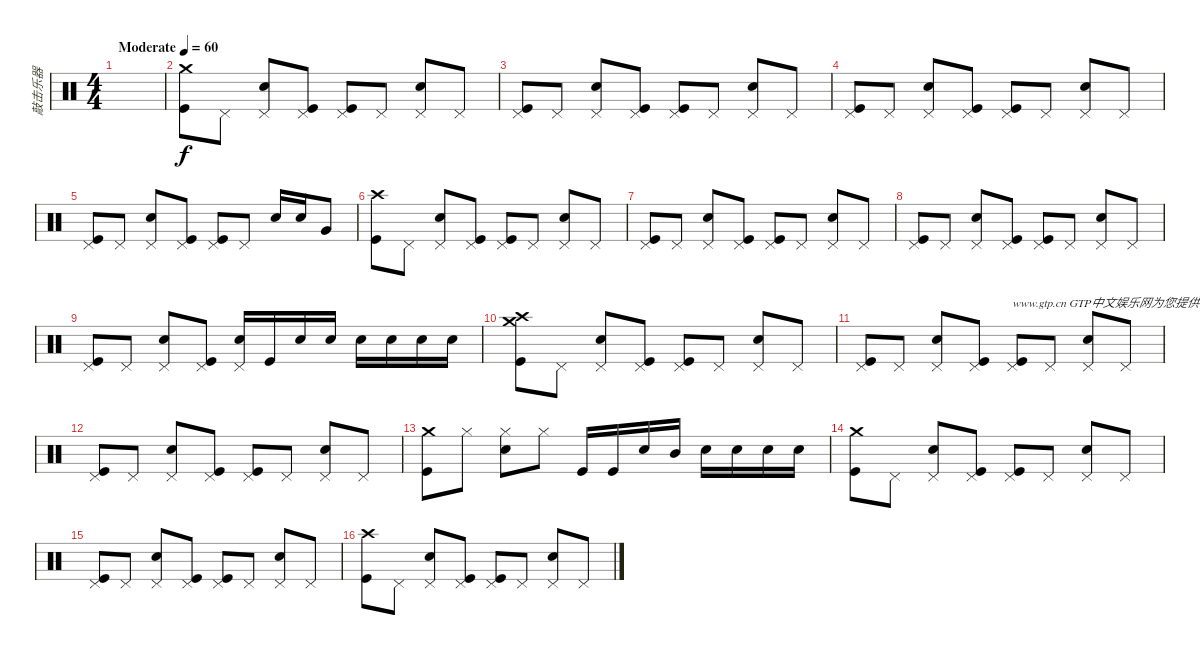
\track ("敲击乐器" "敲击乐器") {instrument percussion}
\staff {score}
\articulation defaults
\ts (4 4)
\tempo (60 "Moderate")
\clef neutral
\ks c
|
("Kick (hit)" "Crash medium (hit)").8 "Pedal Hi-Hat (hit)".8 ("Electric Snare (hit)" "Pedal Hi-Hat (hit)").8 ("Kick (hit)" "Pedal Hi-Hat (hit)").8 ("Kick (hit)" "Pedal Hi-Hat (hit)").8 "Pedal Hi-Hat (hit)".8 ("Electric Snare (hit)" "Pedal Hi-Hat (hit)").8 "Pedal Hi-Hat (hit)".8 |
("Kick (hit)" "Pedal Hi-Hat (hit)").8 "Pedal Hi-Hat (hit)".8 ("Electric Snare (hit)" "Pedal Hi-Hat (hit)").8 ("Kick (hit)" "Pedal Hi-Hat (hit)").8 ("Kick (hit)" "Pedal Hi-Hat (hit)").8 "Pedal Hi-Hat (hit)".8 ("Electric Snare (hit)" "Pedal Hi-Hat (hit)").8 "Pedal Hi-Hat (hit)".8 |
("Kick (hit)" "Pedal Hi-Hat (hit)").8 "Pedal Hi-Hat (hit)".8 ("Electric Snare (hit)" "Pedal Hi-Hat (hit)").8 ("Kick (hit)" "Pedal Hi-Hat (hit)").8 ("Kick (hit)" "Pedal Hi-Hat (hit)").8 "Pedal Hi-Hat (hit)".8 ("Electric Snare (hit)" "Pedal Hi-Hat (hit)").8 "Pedal Hi-Hat (hit)".8 |
("Kick (hit)" "Pedal Hi-Hat (hit)").8 "Pedal Hi-Hat (hit)".8 ("Electric Snare (hit)" "Pedal Hi-Hat (hit)").8 ("Kick (hit)" "Pedal Hi-Hat (hit)").8 ("Kick (hit)" "Pedal Hi-Hat (hit)").8 "Pedal Hi-Hat (hit)".8 "Electric Snare (hit)".16 "Electric Snare (hit)".16 "Very Low Tom (hit)".8 |
("Kick (hit)" "Crash high (hit)").8 "Pedal Hi-Hat (hit)".8 ("Electric Snare (hit)" "Pedal Hi-Hat (hit)").8 ("Kick (hit)" "Pedal Hi-Hat (hit)").8 ("Kick (hit)" "Pedal Hi-Hat (hit)").8 "Pedal Hi-Hat (hit)".8 ("Electric Snare (hit)" "Pedal Hi-Hat (hit)").8 "Pedal Hi-Hat (hit)".8 |
("Kick (hit)" "Pedal Hi-Hat (hit)").8 "Pedal Hi-Hat (hit)".8 ("Electric Snare (hit)" "Pedal Hi-Hat (hit)").8 ("Kick (hit)" "Pedal Hi-Hat (hit)").8 ("Kick (hit)" "Pedal Hi-Hat (hit)").8 "Pedal Hi-Hat (hit)".8 ("Electric Snare (hit)" "Pedal Hi-Hat (hit)").8 "Pedal Hi-Hat (hit)".8 |
("Kick (hit)" "Pedal Hi-Hat (hit)").8 "Pedal Hi-Hat (hit)".8 ("Electric Snare (hit)" "Pedal Hi-Hat (hit)").8 ("Kick (hit)" "Pedal Hi-Hat (hit)").8 ("Kick (hit)" "Pedal Hi-Hat (hit)").8 "Pedal Hi-Hat (hit)".8 ("Electric Snare (hit)" "Pedal Hi-Hat (hit)").8 "Pedal Hi-Hat (hit)".8 |
("Kick (hit)" "Pedal Hi-Hat (hit)").8 "Pedal Hi-Hat (hit)".8 ("Electric Snare (hit)" "Pedal Hi-Hat (hit)").8 ("Kick (hit)" "Pedal Hi-Hat (hit)").8 ("Electric Snare (hit)" "Pedal Hi-Hat (hit)").16 "Kick (hit)".16 "Electric Snare (hit)".16 "Electric Snare (hit)".16 "Electric Snare (hit)".16 "Electric Snare (hit)".16 "Electric Snare (hit)".16 "Electric Snare (hit)".16 |
("Kick (hit)" "Crash medium (hit)" "Crash high (hit)").8 "Pedal Hi-Hat (hit)".8 ("Electric Snare (hit)" "Pedal Hi-Hat (hit)").8 ("Kick (hit)" "Pedal Hi-Hat (hit)").8 ("Kick (hit)" "Pedal Hi-Hat (hit)").8 "Pedal Hi-Hat (hit)".8 ("Electric Snare (hit)" "Pedal Hi-Hat (hit)").8 "Pedal Hi-Hat (hit)".8 |
("Kick (hit)" "Pedal Hi-Hat (hit)").8 "Pedal Hi-Hat (hit)".8 ("Electric Snare (hit)" "Pedal Hi-Hat (hit)").8 ("Kick (hit)" "Pedal Hi-Hat (hit)").8 ("Kick (hit)" "Pedal Hi-Hat (hit)").8{txt "www.gtp.cn GTP中文娱乐网为您提供优秀的谱子"} "Pedal Hi-Hat (hit)".8 ("Electric Snare (hit)" "Pedal Hi-Hat (hit)").8 "Pedal Hi-Hat (hit)".8 |
("Kick (hit)" "Pedal Hi-Hat (hit)").8 "Pedal Hi-Hat (hit)".8 ("Electric Snare (hit)" "Pedal Hi-Hat (hit)").8 ("Kick (hit)" "Pedal Hi-Hat (hit)").8 ("Kick (hit)" "Pedal Hi-Hat (hit)").8 "Pedal Hi-Hat (hit)".8 ("Electric Snare (hit)" "Pedal Hi-Hat (hit)").8 "Pedal Hi-Hat (hit)".8 |
("Kick (hit)" "Crash medium (hit)").8 "Hi-Hat (closed)".8 ("Electric Snare (hit)" "Hi-Hat (closed)").8 "Hi-Hat (closed)".8 "Kick (hit)".16 "Kick (hit)".16 "Electric Snare (hit)".16 "Mid Tom (hit)".16 "Electric Snare (hit)".16 "Electric Snare (hit)".16 "Electric Snare (hit)".16 "Electric Snare (hit)".16 |
("Kick (hit)" "Crash medium (hit)").8 "Pedal Hi-Hat (hit)".8 ("Electric Snare (hit)" "Pedal Hi-Hat (hit)").8 ("Kick (hit)" "Pedal Hi-Hat (hit)").8 ("Kick (hit)" "Pedal Hi-Hat (hit)").8 "Pedal Hi-Hat (hit)".8 ("Electric Snare (hit)" "Pedal Hi-Hat (hit)").8 "Pedal Hi-Hat (hit)".8 |
("Kick (hit)" "Pedal Hi-Hat (hit)").8 "Pedal Hi-Hat (hit)".8 ("Electric Snare (hit)" "Pedal Hi-Hat (hit)").8 ("Kick (hit)" "Pedal Hi-Hat (hit)").8 ("Kick (hit)" "Pedal Hi-Hat (hit)").8 "Pedal Hi-Hat (hit)".8 ("Electric Snare (hit)" "Pedal Hi-Hat (hit)").8 "Pedal Hi-Hat (hit)".8 |
("Kick (hit)" "Crash high (hit)").8 "Pedal Hi-Hat (hit)".8 ("Electric Snare (hit)" "Pedal Hi-Hat (hit)").8 ("Kick (hit)" "Pedal Hi-Hat (hit)").8 ("Kick (hit)" "Pedal Hi-Hat (hit)").8 "Pedal Hi-Hat (hit)".8 ("Electric Snare (hit)" "Pedal Hi-Hat (hit)").8 "Pedal Hi-Hat (hit)".8
